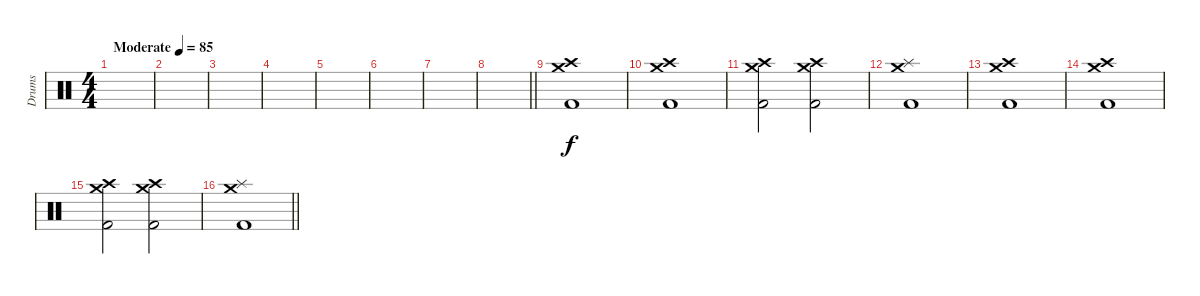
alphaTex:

\track ("Drums" "Drums") {instrument percussion}
\staff {score}
\articulation defaults
\ts (4 4)
\tempo (85 "Moderate")
\clef neutral
\ks c
|
|
|
|
|
|
|
\barLineRight lightlight
|
("Crash medium (hit)" "Crash high (hit)" "Kick (hit) 2").1 |
("Crash medium (hit)" "Crash high (hit)" "Kick (hit) 2").1 |
("Crash medium (hit)" "Crash high (hit)" "Kick (hit) 2").2 ("Crash medium (hit)" "Crash high (hit)" "Kick (hit) 2").2 |
("Crash medium (hit)" "Splash (hit)" "Kick (hit) 2").1 |
("Crash medium (hit)" "Crash high (hit)" "Kick (hit) 2").1 |
("Crash medium (hit)" "Crash high (hit)" "Kick (hit) 2").1 |
("Crash medium (hit)" "Crash high (hit)" "Kick (hit) 2").2 ("Crash medium (hit)" "Crash high (hit)" "Kick (hit) 2").2 |
\barLineRight lightlight
("Crash medium (hit)" "Splash (hit)" "Kick (hit) 2").1
